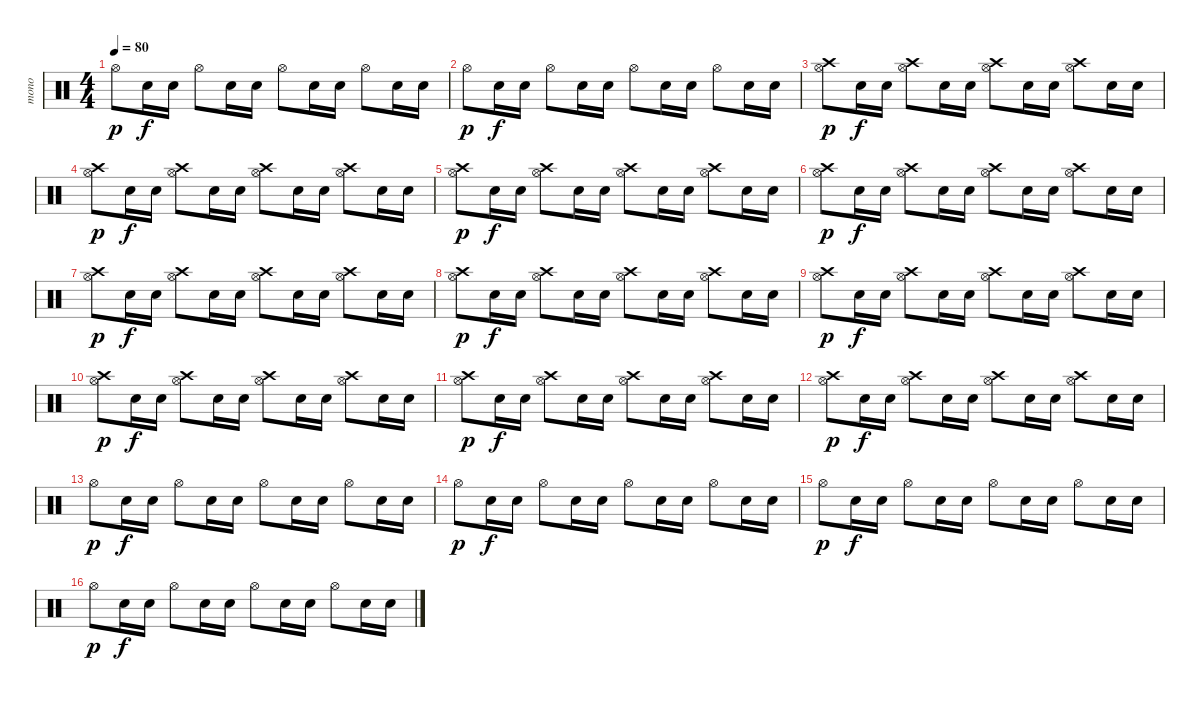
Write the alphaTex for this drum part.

\track ("mono" "mono") {instrument percussion}
\staff {score}
\articulation defaults
\ts (4 4)
\tempo 80
\clef neutral
\ks c "Hi-Hat (open)".8{dy p} "Snare (hit) 2".16{dy f} "Snare (hit) 2".16 "Hi-Hat (open)".8 "Snare (hit) 2".16 "Snare (hit) 2".16 "Hi-Hat (open)".8 "Snare (hit) 2".16 "Snare (hit) 2".16 "Hi-Hat (open)".8 "Snare (hit) 2".16 "Snare (hit) 2".16
|
"Hi-Hat (open)".8{dy p} "Snare (hit) 2".16{dy f} "Snare (hit) 2".16 "Hi-Hat (open)".8 "Snare (hit) 2".16 "Snare (hit) 2".16 "Hi-Hat (open)".8 "Snare (hit) 2".16 "Snare (hit) 2".16 "Hi-Hat (open)".8 "Snare (hit) 2".16 "Snare (hit) 2".16 |
("Hi-Hat (open)" "Crash high (hit)").8{dy p} "Snare (hit) 2".16{dy f} "Snare (hit) 2".16 ("Hi-Hat (open)" "Crash high (hit)").8 "Snare (hit) 2".16 "Snare (hit) 2".16 ("Hi-Hat (open)" "Crash high (hit)").8 "Snare (hit) 2".16 "Snare (hit) 2".16 ("Hi-Hat (open)" "Crash high (hit)").8 "Snare (hit) 2".16 "Snare (hit) 2".16 |
("Hi-Hat (open)" "Crash high (hit)").8{dy p} "Snare (hit) 2".16{dy f} "Snare (hit) 2".16 ("Hi-Hat (open)" "Crash high (hit)").8 "Snare (hit) 2".16 "Snare (hit) 2".16 ("Hi-Hat (open)" "Crash high (hit)").8 "Snare (hit) 2".16 "Snare (hit) 2".16 ("Hi-Hat (open)" "Crash high (hit)").8 "Snare (hit) 2".16 "Snare (hit) 2".16 |
("Hi-Hat (open)" "Crash high (hit)").8{dy p} "Snare (hit) 2".16{dy f} "Snare (hit) 2".16 ("Hi-Hat (open)" "Crash high (hit)").8 "Snare (hit) 2".16 "Snare (hit) 2".16 ("Hi-Hat (open)" "Crash high (hit)").8 "Snare (hit) 2".16 "Snare (hit) 2".16 ("Hi-Hat (open)" "Crash high (hit)").8 "Snare (hit) 2".16 "Snare (hit) 2".16 |
("Hi-Hat (open)" "Crash high (hit)").8{dy p} "Snare (hit) 2".16{dy f} "Snare (hit) 2".16 ("Hi-Hat (open)" "Crash high (hit)").8 "Snare (hit) 2".16 "Snare (hit) 2".16 ("Hi-Hat (open)" "Crash high (hit)").8 "Snare (hit) 2".16 "Snare (hit) 2".16 ("Hi-Hat (open)" "Crash high (hit)").8 "Snare (hit) 2".16 "Snare (hit) 2".16 |
("Hi-Hat (open)" "Crash high (hit)").8{dy p} "Snare (hit) 2".16{dy f} "Snare (hit) 2".16 ("Hi-Hat (open)" "Crash high (hit)").8 "Snare (hit) 2".16 "Snare (hit) 2".16 ("Hi-Hat (open)" "Crash high (hit)").8 "Snare (hit) 2".16 "Snare (hit) 2".16 ("Hi-Hat (open)" "Crash high (hit)").8 "Snare (hit) 2".16 "Snare (hit) 2".16 |
("Hi-Hat (open)" "Crash high (hit)").8{dy p} "Snare (hit) 2".16{dy f} "Snare (hit) 2".16 ("Hi-Hat (open)" "Crash high (hit)").8 "Snare (hit) 2".16 "Snare (hit) 2".16 ("Hi-Hat (open)" "Crash high (hit)").8 "Snare (hit) 2".16 "Snare (hit) 2".16 ("Hi-Hat (open)" "Crash high (hit)").8 "Snare (hit) 2".16 "Snare (hit) 2".16 |
("Hi-Hat (open)" "Crash high (hit)").8{dy p} "Snare (hit) 2".16{dy f} "Snare (hit) 2".16 ("Hi-Hat (open)" "Crash high (hit)").8 "Snare (hit) 2".16 "Snare (hit) 2".16 ("Hi-Hat (open)" "Crash high (hit)").8 "Snare (hit) 2".16 "Snare (hit) 2".16 ("Hi-Hat (open)" "Crash high (hit)").8 "Snare (hit) 2".16 "Snare (hit) 2".16 |
("Hi-Hat (open)" "Crash high (hit)").8{dy p} "Snare (hit) 2".16{dy f} "Snare (hit) 2".16 ("Hi-Hat (open)" "Crash high (hit)").8 "Snare (hit) 2".16 "Snare (hit) 2".16 ("Hi-Hat (open)" "Crash high (hit)").8 "Snare (hit) 2".16 "Snare (hit) 2".16 ("Hi-Hat (open)" "Crash high (hit)").8 "Snare (hit) 2".16 "Snare (hit) 2".16 |
("Hi-Hat (open)" "Crash high (hit)").8{dy p} "Snare (hit) 2".16{dy f} "Snare (hit) 2".16 ("Hi-Hat (open)" "Crash high (hit)").8 "Snare (hit) 2".16 "Snare (hit) 2".16 ("Hi-Hat (open)" "Crash high (hit)").8 "Snare (hit) 2".16 "Snare (hit) 2".16 ("Hi-Hat (open)" "Crash high (hit)").8 "Snare (hit) 2".16 "Snare (hit) 2".16 |
("Hi-Hat (open)" "Crash high (hit)").8{dy p} "Snare (hit) 2".16{dy f} "Snare (hit) 2".16 ("Hi-Hat (open)" "Crash high (hit)").8 "Snare (hit) 2".16 "Snare (hit) 2".16 ("Hi-Hat (open)" "Crash high (hit)").8 "Snare (hit) 2".16 "Snare (hit) 2".16 ("Hi-Hat (open)" "Crash high (hit)").8 "Snare (hit) 2".16 "Snare (hit) 2".16 |
"Hi-Hat (open)".8{dy p} "Snare (hit) 2".16{dy f} "Snare (hit) 2".16 "Hi-Hat (open)".8 "Snare (hit) 2".16 "Snare (hit) 2".16 "Hi-Hat (open)".8 "Snare (hit) 2".16 "Snare (hit) 2".16 "Hi-Hat (open)".8 "Snare (hit) 2".16 "Snare (hit) 2".16 |
"Hi-Hat (open)".8{dy p volume 5} "Snare (hit) 2".16{dy f} "Snare (hit) 2".16 "Hi-Hat (open)".8 "Snare (hit) 2".16 "Snare (hit) 2".16 "Hi-Hat (open)".8 "Snare (hit) 2".16 "Snare (hit) 2".16 "Hi-Hat (open)".8 "Snare (hit) 2".16 "Snare (hit) 2".16 |
"Hi-Hat (open)".8{dy p volume 4} "Snare (hit) 2".16{dy f} "Snare (hit) 2".16 "Hi-Hat (open)".8 "Snare (hit) 2".16 "Snare (hit) 2".16 "Hi-Hat (open)".8 "Snare (hit) 2".16 "Snare (hit) 2".16 "Hi-Hat (open)".8 "Snare (hit) 2".16 "Snare (hit) 2".16 |
"Hi-Hat (open)".8{dy p volume 4} "Snare (hit) 2".16{dy f} "Snare (hit) 2".16 "Hi-Hat (open)".8 "Snare (hit) 2".16 "Snare (hit) 2".16 "Hi-Hat (open)".8 "Snare (hit) 2".16 "Snare (hit) 2".16 "Hi-Hat (open)".8 "Snare (hit) 2".16 "Snare (hit) 2".16
